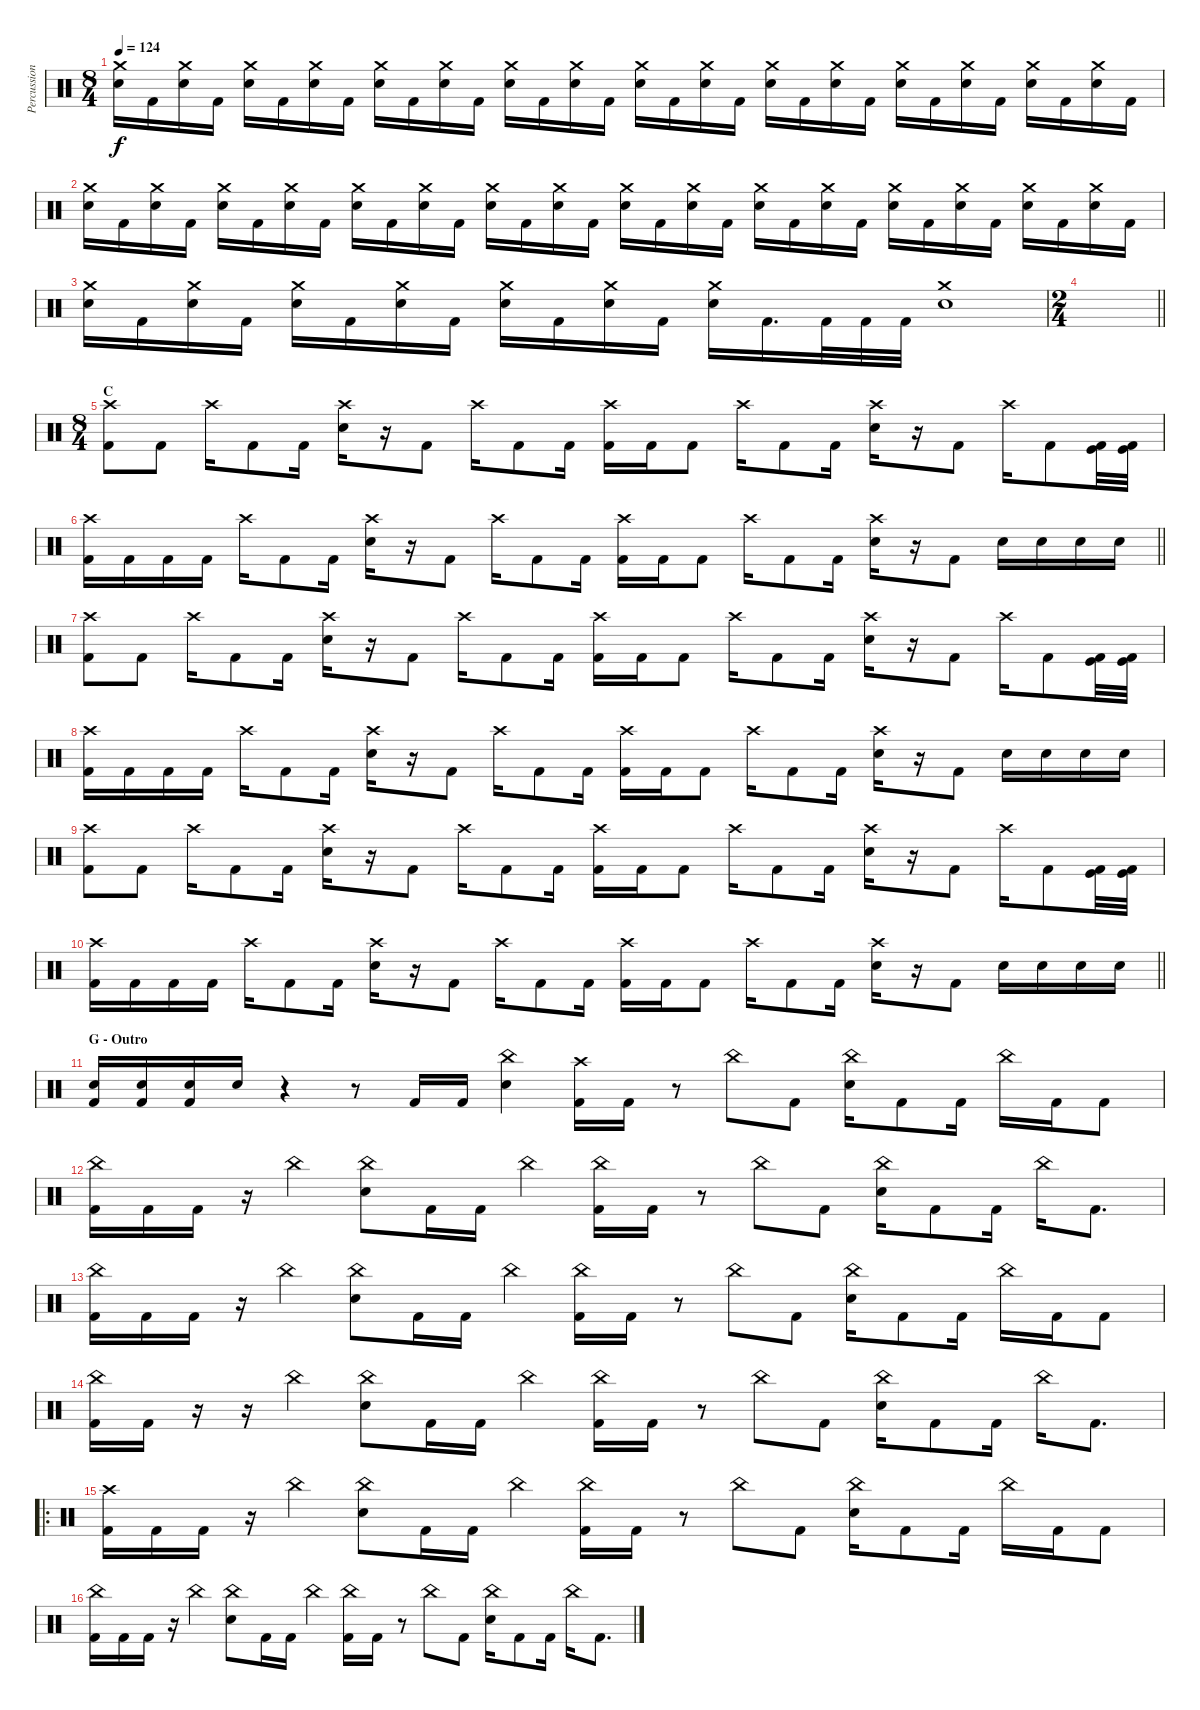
\track ("Percussions" "Percussion") {instrument percussion}
\staff {score}
\articulation defaults
\ts (8 4)
\tempo 124
\clef neutral
\ks c
("Crash medium (hit)" "Snare (hit) 2").16{dy f} "Kick (hit) 2".16 ("Crash medium (hit)" "Snare (hit) 2").16 "Kick (hit) 2".16 ("Crash medium (hit)" "Snare (hit) 2").16 "Kick (hit) 2".16 ("Crash medium (hit)" "Snare (hit) 2").16 "Kick (hit) 2".16 ("Crash medium (hit)" "Snare (hit) 2").16 "Kick (hit) 2".16 ("Crash medium (hit)" "Snare (hit) 2").16 "Kick (hit) 2".16 ("Crash medium (hit)" "Snare (hit) 2").16 "Kick (hit) 2".16 ("Crash medium (hit)" "Snare (hit) 2").16 "Kick (hit) 2".16 ("Crash medium (hit)" "Snare (hit) 2").16 "Kick (hit) 2".16 ("Crash medium (hit)" "Snare (hit) 2").16 "Kick (hit) 2".16 ("Crash medium (hit)" "Snare (hit) 2").16 "Kick (hit) 2".16 ("Crash medium (hit)" "Snare (hit) 2").16 "Kick (hit) 2".16 ("Crash medium (hit)" "Snare (hit) 2").16 "Kick (hit) 2".16 ("Crash medium (hit)" "Snare (hit) 2").16 "Kick (hit) 2".16 ("Crash medium (hit)" "Snare (hit) 2").16 "Kick (hit) 2".16 ("Crash medium (hit)" "Snare (hit) 2").16 "Kick (hit) 2".16 |
("Crash medium (hit)" "Snare (hit) 2").16 "Kick (hit) 2".16 ("Crash medium (hit)" "Snare (hit) 2").16 "Kick (hit) 2".16 ("Crash medium (hit)" "Snare (hit) 2").16 "Kick (hit) 2".16 ("Crash medium (hit)" "Snare (hit) 2").16 "Kick (hit) 2".16 ("Crash medium (hit)" "Snare (hit) 2").16 "Kick (hit) 2".16 ("Crash medium (hit)" "Snare (hit) 2").16 "Kick (hit) 2".16 ("Crash medium (hit)" "Snare (hit) 2").16 "Kick (hit) 2".16 ("Crash medium (hit)" "Snare (hit) 2").16 "Kick (hit) 2".16 ("Crash medium (hit)" "Snare (hit) 2").16 "Kick (hit) 2".16 ("Crash medium (hit)" "Snare (hit) 2").16 "Kick (hit) 2".16 ("Crash medium (hit)" "Snare (hit) 2").16 "Kick (hit) 2".16 ("Crash medium (hit)" "Snare (hit) 2").16 "Kick (hit) 2".16 ("Crash medium (hit)" "Snare (hit) 2").16 "Kick (hit) 2".16 ("Crash medium (hit)" "Snare (hit) 2").16 "Kick (hit) 2".16 ("Crash medium (hit)" "Snare (hit) 2").16 "Kick (hit) 2".16 ("Crash medium (hit)" "Snare (hit) 2").16 "Kick (hit) 2".16 |
("Crash medium (hit)" "Snare (hit) 2").16 "Kick (hit) 2".16 ("Crash medium (hit)" "Snare (hit) 2").16 "Kick (hit) 2".16 ("Crash medium (hit)" "Snare (hit) 2").16 "Kick (hit) 2".16 ("Crash medium (hit)" "Snare (hit) 2").16 "Kick (hit) 2".16 ("Crash medium (hit)" "Snare (hit) 2").16 "Kick (hit) 2".16 ("Crash medium (hit)" "Snare (hit) 2").16 "Kick (hit) 2".16 ("Crash medium (hit)" "Snare (hit) 2").16 "Kick (hit) 2".16{d} "Kick (hit) 2".32 "Kick (hit) 2".32 "Kick (hit) 2".32 ("Crash medium (hit)" "Snare (hit) 2").1 |
\ts (2 4)
\barLineRight lightlight
|
\ts (8 4)
\section ("" "C")
("Crash high (hit)" "Kick (hit) 2").8 "Kick (hit) 2".8 "Crash high (hit)".16 "Kick (hit) 2".8 "Kick (hit) 2".16 ("Crash high (hit)" "Snare (hit) 2").16 r.16 "Kick (hit) 2".8 "Crash high (hit)".16 "Kick (hit) 2".8 "Kick (hit) 2".16 ("Crash high (hit)" "Kick (hit) 2").16 "Kick (hit) 2".16 "Kick (hit) 2".8 "Crash high (hit)".16 "Kick (hit) 2".8 "Kick (hit) 2".16 ("Crash high (hit)" "Snare (hit) 2").16 r.16 "Kick (hit) 2".8 "Crash high (hit)".16 "Kick (hit) 2".8 ("Kick (hit)" "Kick (hit) 2").32 ("Kick (hit)" "Kick (hit) 2").32 |
\barLineRight lightlight
("Crash high (hit)" "Kick (hit) 2").16 "Kick (hit) 2".16 "Kick (hit) 2".16 "Kick (hit) 2".16 "Crash high (hit)".16 "Kick (hit) 2".8 "Kick (hit) 2".16 ("Crash high (hit)" "Snare (hit) 2").16 r.16 "Kick (hit) 2".8 "Crash high (hit)".16 "Kick (hit) 2".8 "Kick (hit) 2".16 ("Crash high (hit)" "Kick (hit) 2").16 "Kick (hit) 2".16 "Kick (hit) 2".8 "Crash high (hit)".16 "Kick (hit) 2".8 "Kick (hit) 2".16 ("Crash high (hit)" "Snare (hit) 2").16 r.16 "Kick (hit) 2".8 "Snare (hit) 2".16 "Snare (hit) 2".16 "Snare (hit) 2".16 "Snare (hit) 2".16 |
("Crash high (hit)" "Kick (hit) 2").8 "Kick (hit) 2".8 "Crash high (hit)".16 "Kick (hit) 2".8 "Kick (hit) 2".16 ("Crash high (hit)" "Snare (hit) 2").16 r.16 "Kick (hit) 2".8 "Crash high (hit)".16 "Kick (hit) 2".8 "Kick (hit) 2".16 ("Crash high (hit)" "Kick (hit) 2").16 "Kick (hit) 2".16 "Kick (hit) 2".8 "Crash high (hit)".16 "Kick (hit) 2".8 "Kick (hit) 2".16 ("Crash high (hit)" "Snare (hit) 2").16 r.16 "Kick (hit) 2".8 "Crash high (hit)".16 "Kick (hit) 2".8 ("Kick (hit)" "Kick (hit) 2").32 ("Kick (hit)" "Kick (hit) 2").32 |
("Crash high (hit)" "Kick (hit) 2").16 "Kick (hit) 2".16 "Kick (hit) 2".16 "Kick (hit) 2".16 "Crash high (hit)".16 "Kick (hit) 2".8 "Kick (hit) 2".16 ("Crash high (hit)" "Snare (hit) 2").16 r.16 "Kick (hit) 2".8 "Crash high (hit)".16 "Kick (hit) 2".8 "Kick (hit) 2".16 ("Crash high (hit)" "Kick (hit) 2").16 "Kick (hit) 2".16 "Kick (hit) 2".8 "Crash high (hit)".16 "Kick (hit) 2".8 "Kick (hit) 2".16 ("Crash high (hit)" "Snare (hit) 2").16 r.16 "Kick (hit) 2".8 "Snare (hit) 2".16 "Snare (hit) 2".16 "Snare (hit) 2".16 "Snare (hit) 2".16 |
("Crash high (hit)" "Kick (hit) 2").8 "Kick (hit) 2".8 "Crash high (hit)".16 "Kick (hit) 2".8 "Kick (hit) 2".16 ("Crash high (hit)" "Snare (hit) 2").16 r.16 "Kick (hit) 2".8 "Crash high (hit)".16 "Kick (hit) 2".8 "Kick (hit) 2".16 ("Crash high (hit)" "Kick (hit) 2").16 "Kick (hit) 2".16 "Kick (hit) 2".8 "Crash high (hit)".16 "Kick (hit) 2".8 "Kick (hit) 2".16 ("Crash high (hit)" "Snare (hit) 2").16 r.16 "Kick (hit) 2".8 "Crash high (hit)".16 "Kick (hit) 2".8 ("Kick (hit)" "Kick (hit) 2").32 ("Kick (hit)" "Kick (hit) 2").32 |
\barLineRight lightlight
("Crash high (hit)" "Kick (hit) 2").16 "Kick (hit) 2".16 "Kick (hit) 2".16 "Kick (hit) 2".16 "Crash high (hit)".16 "Kick (hit) 2".8 "Kick (hit) 2".16 ("Crash high (hit)" "Snare (hit) 2").16 r.16 "Kick (hit) 2".8 "Crash high (hit)".16 "Kick (hit) 2".8 "Kick (hit) 2".16 ("Crash high (hit)" "Kick (hit) 2").16 "Kick (hit) 2".16 "Kick (hit) 2".8 "Crash high (hit)".16 "Kick (hit) 2".8 "Kick (hit) 2".16 ("Crash high (hit)" "Snare (hit) 2").16 r.16 "Kick (hit) 2".8 "Snare (hit) 2".16 "Snare (hit) 2".16 "Snare (hit) 2".16 "Snare (hit) 2".16 |
\section ("" "G - Outro")
("Snare (hit) 2" "Kick (hit) 2").16 ("Snare (hit) 2" "Kick (hit) 2").16 ("Snare (hit) 2" "Kick (hit) 2").16 "Snare (hit) 2".16 r.4 r.8 "Kick (hit) 2".16 "Kick (hit) 2".16 ("China (hit)" "Snare (hit) 2").4 ("Crash high (hit)" "Kick (hit) 2").16 "Kick (hit) 2".16 r.8 "China (hit)".8 "Kick (hit) 2".8 ("China (hit)" "Snare (hit) 2").16 "Kick (hit) 2".8 "Kick (hit) 2".16 "China (hit)".16 "Kick (hit) 2".16 "Kick (hit) 2".8 |
("China (hit)" "Kick (hit) 2").16 "Kick (hit) 2".16 "Kick (hit) 2".16 r.16 "China (hit)".4 ("China (hit)" "Snare (hit) 2").8 "Kick (hit) 2".16 "Kick (hit) 2".16 "China (hit)".4 ("China (hit)" "Kick (hit) 2").16 "Kick (hit) 2".16 r.8 "China (hit)".8 "Kick (hit) 2".8 ("China (hit)" "Snare (hit) 2").16 "Kick (hit) 2".8 "Kick (hit) 2".16 "China (hit)".16 "Kick (hit) 2".8{d} |
("China (hit)" "Kick (hit) 2").16 "Kick (hit) 2".16 "Kick (hit) 2".16 r.16 "China (hit)".4 ("China (hit)" "Snare (hit) 2").8 "Kick (hit) 2".16 "Kick (hit) 2".16 "China (hit)".4 ("China (hit)" "Kick (hit) 2").16 "Kick (hit) 2".16 r.8 "China (hit)".8 "Kick (hit) 2".8 ("China (hit)" "Snare (hit) 2").16 "Kick (hit) 2".8 "Kick (hit) 2".16 "China (hit)".16 "Kick (hit) 2".16 "Kick (hit) 2".8 |
("China (hit)" "Kick (hit) 2").16 "Kick (hit) 2".16 r.16 r.16 "China (hit)".4 ("China (hit)" "Snare (hit) 2").8 "Kick (hit) 2".16 "Kick (hit) 2".16 "China (hit)".4 ("China (hit)" "Kick (hit) 2").16 "Kick (hit) 2".16 r.8 "China (hit)".8 "Kick (hit) 2".8 ("China (hit)" "Snare (hit) 2").16 "Kick (hit) 2".8 "Kick (hit) 2".16 "China (hit)".16 "Kick (hit) 2".8{d} |
\ro
("Crash high (hit)" "Kick (hit) 2").16 "Kick (hit) 2".16 "Kick (hit) 2".16 r.16 "China (hit)".4 ("China (hit)" "Snare (hit) 2").8 "Kick (hit) 2".16 "Kick (hit) 2".16 "China (hit)".4 ("China (hit)" "Kick (hit) 2").16 "Kick (hit) 2".16 r.8 "China (hit)".8 "Kick (hit) 2".8 ("China (hit)" "Snare (hit) 2").16 "Kick (hit) 2".8 "Kick (hit) 2".16 "China (hit)".16 "Kick (hit) 2".16 "Kick (hit) 2".8 |
("China (hit)" "Kick (hit) 2").16 "Kick (hit) 2".16 "Kick (hit) 2".16 r.16 "China (hit)".4 ("China (hit)" "Snare (hit) 2").8 "Kick (hit) 2".16 "Kick (hit) 2".16 "China (hit)".4 ("China (hit)" "Kick (hit) 2").16 "Kick (hit) 2".16 r.8 "China (hit)".8 "Kick (hit) 2".8 ("China (hit)" "Snare (hit) 2").16 "Kick (hit) 2".8 "Kick (hit) 2".16 "China (hit)".16 "Kick (hit) 2".8{d}
